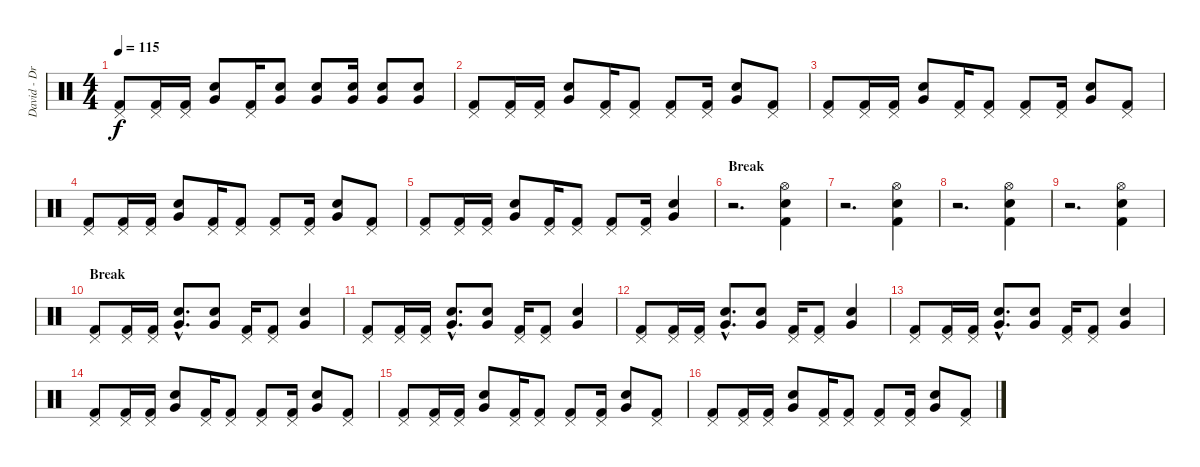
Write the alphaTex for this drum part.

\track ("David - Drums" "David - Dr") {instrument percussion}
\staff {score}
\articulation defaults
\ts (4 4)
\tempo 115
\clef neutral
\ks c
("Kick (hit) 2" "Pedal Hi-Hat (hit)").8{dy f} ("Kick (hit) 2" "Pedal Hi-Hat (hit)").16 ("Kick (hit) 2" "Pedal Hi-Hat (hit)").16 ("Snare (hit) 2" "Very Low Tom (hit)").8 ("Kick (hit) 2" "Pedal Hi-Hat (hit)").16 ("Snare (hit) 2" "Very Low Tom (hit)").8 ("Snare (hit) 2" "Very Low Tom (hit)").8 ("Snare (hit) 2" "Very Low Tom (hit)").16 ("Snare (hit) 2" "Very Low Tom (hit)").8 ("Snare (hit) 2" "Very Low Tom (hit)").8 |
("Kick (hit) 2" "Pedal Hi-Hat (hit)").8 ("Kick (hit) 2" "Pedal Hi-Hat (hit)").16 ("Kick (hit) 2" "Pedal Hi-Hat (hit)").16 ("Snare (hit) 2" "Very Low Tom (hit)").8 ("Kick (hit) 2" "Pedal Hi-Hat (hit)").16 ("Kick (hit) 2" "Pedal Hi-Hat (hit)").8 ("Kick (hit) 2" "Pedal Hi-Hat (hit)").8 ("Kick (hit) 2" "Pedal Hi-Hat (hit)").16 ("Snare (hit) 2" "Very Low Tom (hit)").8 ("Kick (hit) 2" "Pedal Hi-Hat (hit)").8 |
("Kick (hit) 2" "Pedal Hi-Hat (hit)").8 ("Kick (hit) 2" "Pedal Hi-Hat (hit)").16 ("Kick (hit) 2" "Pedal Hi-Hat (hit)").16 ("Snare (hit) 2" "Very Low Tom (hit)").8 ("Kick (hit) 2" "Pedal Hi-Hat (hit)").16 ("Kick (hit) 2" "Pedal Hi-Hat (hit)").8 ("Kick (hit) 2" "Pedal Hi-Hat (hit)").8 ("Kick (hit) 2" "Pedal Hi-Hat (hit)").16 ("Snare (hit) 2" "Very Low Tom (hit)").8 ("Kick (hit) 2" "Pedal Hi-Hat (hit)").8 |
("Kick (hit) 2" "Pedal Hi-Hat (hit)").8 ("Kick (hit) 2" "Pedal Hi-Hat (hit)").16 ("Kick (hit) 2" "Pedal Hi-Hat (hit)").16 ("Snare (hit) 2" "Very Low Tom (hit)").8 ("Kick (hit) 2" "Pedal Hi-Hat (hit)").16 ("Kick (hit) 2" "Pedal Hi-Hat (hit)").8 ("Kick (hit) 2" "Pedal Hi-Hat (hit)").8 ("Kick (hit) 2" "Pedal Hi-Hat (hit)").16 ("Snare (hit) 2" "Very Low Tom (hit)").8 ("Kick (hit) 2" "Pedal Hi-Hat (hit)").8 |
("Kick (hit) 2" "Pedal Hi-Hat (hit)").8 ("Kick (hit) 2" "Pedal Hi-Hat (hit)").16 ("Kick (hit) 2" "Pedal Hi-Hat (hit)").16 ("Snare (hit) 2" "Very Low Tom (hit)").8 ("Kick (hit) 2" "Pedal Hi-Hat (hit)").16 ("Kick (hit) 2" "Pedal Hi-Hat (hit)").8 ("Kick (hit) 2" "Pedal Hi-Hat (hit)").8 ("Kick (hit) 2" "Pedal Hi-Hat (hit)").16 ("Snare (hit) 2" "Very Low Tom (hit)").4 |
\section ("" "Break")
r.2{d} ("Kick (hit) 2" "Electric Snare (hit)" "Hi-Hat (open)").4 |
r.2{d} ("Kick (hit) 2" "Electric Snare (hit)" "Hi-Hat (open)").4 |
r.2{d} ("Kick (hit) 2" "Electric Snare (hit)" "Hi-Hat (open)").4 |
r.2{d} ("Kick (hit) 2" "Electric Snare (hit)" "Hi-Hat (open)").4 |
\section ("" "Break")
("Kick (hit) 2" "Pedal Hi-Hat (hit)").8 ("Kick (hit) 2" "Pedal Hi-Hat (hit)").16 ("Kick (hit) 2" "Pedal Hi-Hat (hit)").16 ("Snare (hit) 2"{hac} "Very Low Tom (hit)"{hac}).8{d} ("Snare (hit) 2" "Very Low Tom (hit)").8 ("Kick (hit) 2" "Pedal Hi-Hat (hit)").16 ("Kick (hit) 2" "Pedal Hi-Hat (hit)").8 ("Snare (hit) 2" "Very Low Tom (hit)").4 |
("Kick (hit) 2" "Pedal Hi-Hat (hit)").8 ("Kick (hit) 2" "Pedal Hi-Hat (hit)").16 ("Kick (hit) 2" "Pedal Hi-Hat (hit)").16 ("Snare (hit) 2"{hac} "Very Low Tom (hit)"{hac}).8{d} ("Snare (hit) 2" "Very Low Tom (hit)").8 ("Kick (hit) 2" "Pedal Hi-Hat (hit)").16 ("Kick (hit) 2" "Pedal Hi-Hat (hit)").8 ("Snare (hit) 2" "Very Low Tom (hit)").4 |
("Kick (hit) 2" "Pedal Hi-Hat (hit)").8 ("Kick (hit) 2" "Pedal Hi-Hat (hit)").16 ("Kick (hit) 2" "Pedal Hi-Hat (hit)").16 ("Snare (hit) 2"{hac} "Very Low Tom (hit)"{hac}).8{d} ("Snare (hit) 2" "Very Low Tom (hit)").8 ("Kick (hit) 2" "Pedal Hi-Hat (hit)").16 ("Kick (hit) 2" "Pedal Hi-Hat (hit)").8 ("Snare (hit) 2" "Very Low Tom (hit)").4 |
("Kick (hit) 2" "Pedal Hi-Hat (hit)").8 ("Kick (hit) 2" "Pedal Hi-Hat (hit)").16 ("Kick (hit) 2" "Pedal Hi-Hat (hit)").16 ("Snare (hit) 2"{hac} "Very Low Tom (hit)"{hac}).8{d} ("Snare (hit) 2" "Very Low Tom (hit)").8 ("Kick (hit) 2" "Pedal Hi-Hat (hit)").16 ("Kick (hit) 2" "Pedal Hi-Hat (hit)").8 ("Snare (hit) 2" "Very Low Tom (hit)").4 |
\section ("" "")
("Kick (hit) 2" "Pedal Hi-Hat (hit)").8 ("Kick (hit) 2" "Pedal Hi-Hat (hit)").16 ("Kick (hit) 2" "Pedal Hi-Hat (hit)").16 ("Snare (hit) 2" "Very Low Tom (hit)").8 ("Kick (hit) 2" "Pedal Hi-Hat (hit)").16 ("Kick (hit) 2" "Pedal Hi-Hat (hit)").8 ("Kick (hit) 2" "Pedal Hi-Hat (hit)").8 ("Kick (hit) 2" "Pedal Hi-Hat (hit)").16 ("Snare (hit) 2" "Very Low Tom (hit)").8 ("Kick (hit) 2" "Pedal Hi-Hat (hit)").8 |
("Kick (hit) 2" "Pedal Hi-Hat (hit)").8 ("Kick (hit) 2" "Pedal Hi-Hat (hit)").16 ("Kick (hit) 2" "Pedal Hi-Hat (hit)").16 ("Snare (hit) 2" "Very Low Tom (hit)").8 ("Kick (hit) 2" "Pedal Hi-Hat (hit)").16 ("Kick (hit) 2" "Pedal Hi-Hat (hit)").8 ("Kick (hit) 2" "Pedal Hi-Hat (hit)").8 ("Kick (hit) 2" "Pedal Hi-Hat (hit)").16 ("Snare (hit) 2" "Very Low Tom (hit)").8 ("Kick (hit) 2" "Pedal Hi-Hat (hit)").8 |
("Kick (hit) 2" "Pedal Hi-Hat (hit)").8 ("Kick (hit) 2" "Pedal Hi-Hat (hit)").16 ("Kick (hit) 2" "Pedal Hi-Hat (hit)").16 ("Snare (hit) 2" "Very Low Tom (hit)").8 ("Kick (hit) 2" "Pedal Hi-Hat (hit)").16 ("Kick (hit) 2" "Pedal Hi-Hat (hit)").8 ("Kick (hit) 2" "Pedal Hi-Hat (hit)").8 ("Kick (hit) 2" "Pedal Hi-Hat (hit)").16 ("Snare (hit) 2" "Very Low Tom (hit)").8 ("Kick (hit) 2" "Pedal Hi-Hat (hit)").8
